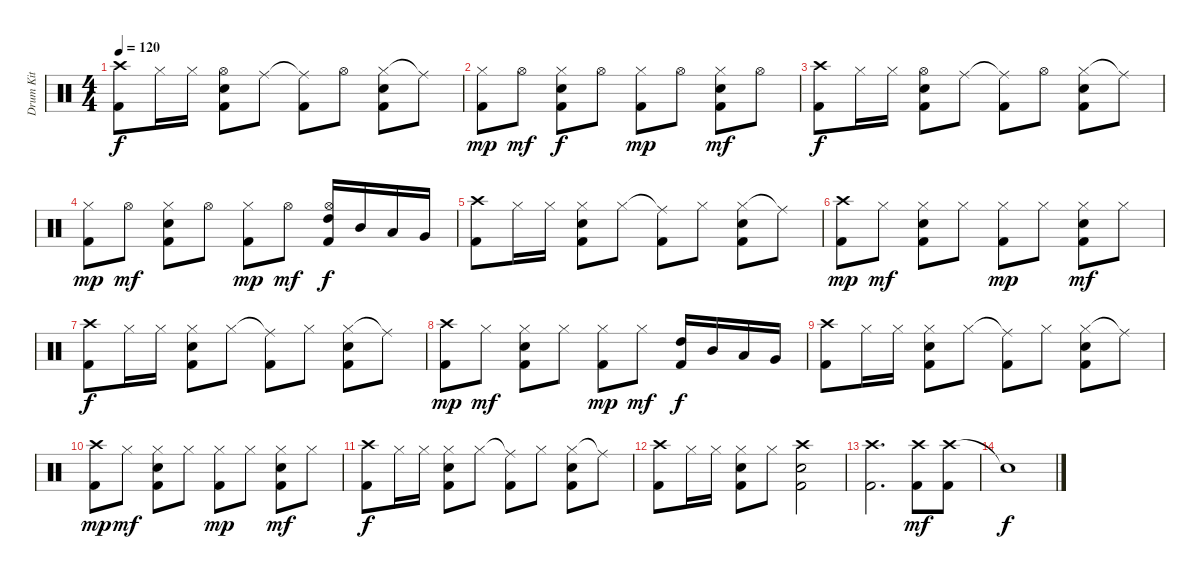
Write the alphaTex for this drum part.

\track ("Drum Kit" "Drum Kit") {instrument percussion}
\staff {score}
\articulation defaults
\ts (4 4)
\tempo 120
\clef neutral
\ks c
("Crash high (hit)" "Kick (hit) 2").8{dy f} "Hi-Hat (closed)".16 "Hi-Hat (closed)".16 ("Hi-Hat (open)" "Snare (hit) 2" "Kick (hit) 2").8 "Ride (middle)".8 ("Ride (middle)"{t} "Kick (hit) 2").8 "Hi-Hat (open)".8 ("Hi-Hat (closed)" "Snare (hit) 2" "Kick (hit) 2").8 "Ride (middle)"{t}.8 |
("Hi-Hat (closed)" "Kick (hit) 2").8{dy mp} "Hi-Hat (open)".8{dy mf} ("Hi-Hat (closed)" "Kick (hit) 2" "Snare (hit) 2").8{dy f} "Hi-Hat (open)".8 ("Hi-Hat (closed)" "Kick (hit) 2").8{dy mp} "Hi-Hat (open)".8 ("Hi-Hat (closed)" "Kick (hit) 2" "Snare (hit) 2").8{dy mf} "Hi-Hat (open)".8 |
("Crash high (hit)" "Kick (hit) 2").8{dy f} "Hi-Hat (closed)".16 "Hi-Hat (closed)".16 ("Hi-Hat (open)" "Snare (hit) 2" "Kick (hit) 2").8 "Ride (middle)".8 ("Ride (middle)"{t} "Kick (hit) 2").8 "Hi-Hat (open)".8 ("Hi-Hat (closed)" "Snare (hit) 2" "Kick (hit) 2").8 "Ride (middle)"{t}.8 |
("Hi-Hat (closed)" "Kick (hit) 2").8{dy mp} "Hi-Hat (open)".8{dy mf} ("Hi-Hat (closed)" "Kick (hit) 2" "Snare (hit) 2").8 "Hi-Hat (open)".8 ("Hi-Hat (closed)" "Kick (hit) 2").8{dy mp} "Hi-Hat (open)".8{dy mf} ("Hi-Hat (open)" "Kick (hit) 2" "High Tom (hit)").16{dy f} "Mid Tom (hit)".16 "Low Tom (hit)".16 "Very Low Tom (hit)".16 |
("Crash high (hit)" "Kick (hit) 2").8 "Hi-Hat (closed)".16 "Hi-Hat (closed)".16 ("Hi-Hat (closed)" "Snare (hit) 2" "Kick (hit) 2").8 "Hi-Hat (closed)".8 ("Ride (middle)"{t} "Kick (hit) 2").8 "Hi-Hat (closed)".8 ("Hi-Hat (closed)" "Snare (hit) 2" "Kick (hit) 2").8 "Ride (middle)"{t}.8 |
("Crash high (hit)" "Kick (hit) 2").8{dy mp} "Hi-Hat (closed)".8{dy mf} ("Hi-Hat (closed)" "Kick (hit) 2" "Snare (hit) 2").8 "Hi-Hat (closed)".8 ("Hi-Hat (closed)" "Kick (hit) 2").8{dy mp} "Hi-Hat (closed)".8 ("Hi-Hat (closed)" "Kick (hit) 2" "Snare (hit) 2").8{dy mf} "Hi-Hat (closed)".8 |
("Crash high (hit)" "Kick (hit) 2").8{dy f} "Hi-Hat (closed)".16 "Hi-Hat (closed)".16 ("Hi-Hat (closed)" "Snare (hit) 2" "Kick (hit) 2").8 "Hi-Hat (closed)".8 ("Ride (middle)"{t} "Kick (hit) 2").8 "Hi-Hat (closed)".8 ("Hi-Hat (closed)" "Snare (hit) 2" "Kick (hit) 2").8 "Ride (middle)"{t}.8 |
("Crash high (hit)" "Kick (hit) 2").8{dy mp} "Hi-Hat (closed)".8{dy mf} ("Hi-Hat (closed)" "Kick (hit) 2" "Snare (hit) 2").8 "Hi-Hat (closed)".8 ("Hi-Hat (closed)" "Kick (hit) 2").8{dy mp} "Hi-Hat (closed)".8{dy mf} ("Kick (hit) 2" "High Tom (hit)").16{dy f} "Mid Tom (hit)".16 "Low Tom (hit)".16 "Very Low Tom (hit)".16 |
("Crash high (hit)" "Kick (hit) 2").8 "Hi-Hat (closed)".16 "Hi-Hat (closed)".16 ("Hi-Hat (closed)" "Snare (hit) 2" "Kick (hit) 2").8 "Hi-Hat (closed)".8 ("Ride (middle)"{t} "Kick (hit) 2").8 "Hi-Hat (closed)".8 ("Hi-Hat (closed)" "Snare (hit) 2" "Kick (hit) 2").8 "Ride (middle)"{t}.8 |
("Crash high (hit)" "Kick (hit) 2").8{dy mp} "Hi-Hat (closed)".8{dy mf} ("Hi-Hat (closed)" "Kick (hit) 2" "Snare (hit) 2").8 "Hi-Hat (closed)".8 ("Hi-Hat (closed)" "Kick (hit) 2").8{dy mp} "Hi-Hat (closed)".8 ("Hi-Hat (closed)" "Kick (hit) 2" "Snare (hit) 2").8{dy mf} "Hi-Hat (closed)".8 |
("Crash high (hit)" "Kick (hit) 2").8{dy f} "Hi-Hat (closed)".16 "Hi-Hat (closed)".16 ("Hi-Hat (closed)" "Snare (hit) 2" "Kick (hit) 2").8 "Hi-Hat (closed)".8 ("Ride (middle)"{t} "Kick (hit) 2").8 "Hi-Hat (closed)".8 ("Hi-Hat (closed)" "Snare (hit) 2" "Kick (hit) 2").8 "Ride (middle)"{t}.8 |
("Crash high (hit)" "Kick (hit) 2").8 "Hi-Hat (closed)".16 "Hi-Hat (closed)".16 ("Hi-Hat (closed)" "Snare (hit) 2" "Kick (hit) 2").8 "Hi-Hat (closed)".8 ("Crash high (hit)" "Snare (hit) 2" "Kick (hit) 2").2 |
("Crash high (hit)" "Kick (hit) 2").2{d} ("Crash high (hit)" "Kick (hit) 2").8{dy mf} ("Crash high (hit)" "Kick (hit) 2").8 |
"Snare (hit)"{t}.1{dy f}
